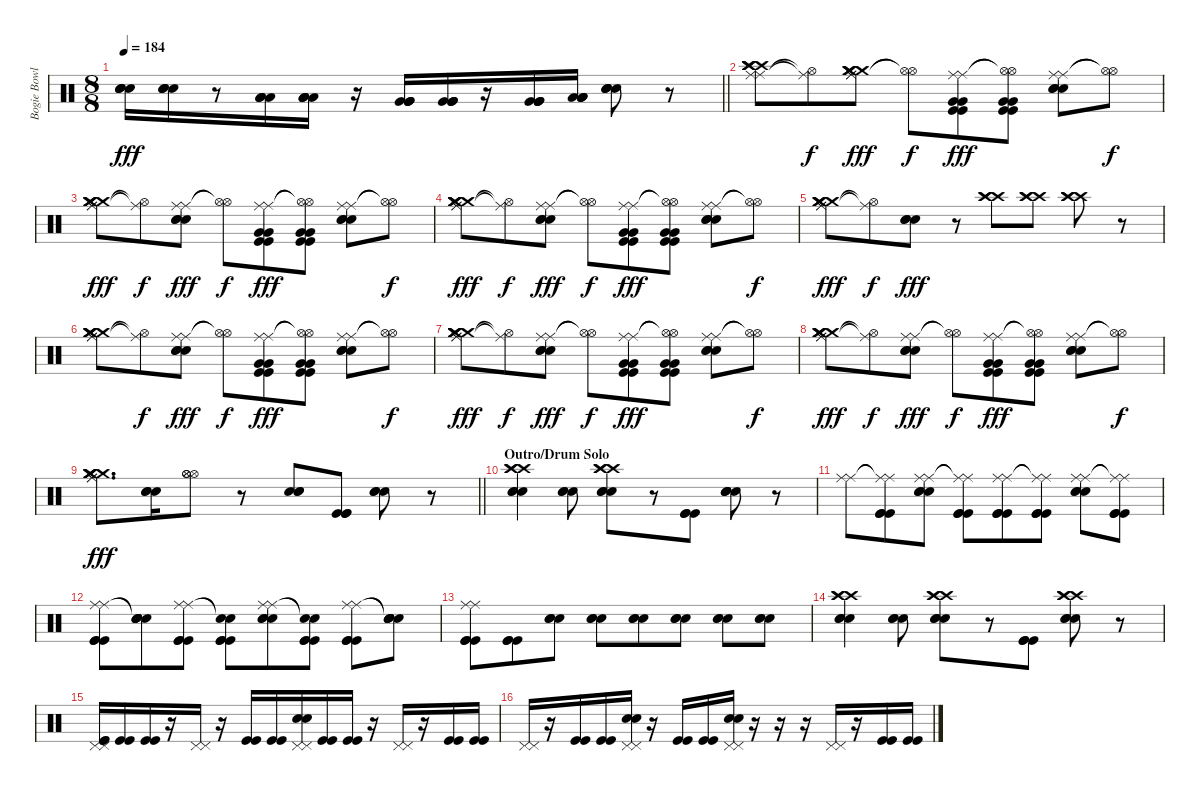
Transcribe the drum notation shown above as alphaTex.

\track ("Bogie Bowles Drums" "Bogie Bowl") {instrument percussion}
\staff {score}
\articulation defaults
\ts (8 8)
\tempo 184
\clef neutral
\barLineRight lightlight
\ks c
("Snare (hit) 2" "Snare (hit) 2" "Snare (hit) 2" "Snare (hit) 2").16{dy fff} ("Snare (hit) 2" "Snare (hit) 2" "Snare (hit) 2" "Snare (hit) 2").16 r.8 ("Low Tom (hit)" "Low Tom (hit)" "Low Tom (hit)" "Low Tom (hit)").16 ("Low Tom (hit)" "Low Tom (hit)" "Low Tom (hit)" "Low Tom (hit)").16 r.16 ("Very Low Tom (hit)" "Very Low Tom (hit)" "Very Low Tom (hit)" "Very Low Tom (hit)").16 ("Very Low Tom (hit)" "Very Low Tom (hit)" "Very Low Tom (hit)" "Very Low Tom (hit)").16 r.16 ("Very Low Tom (hit)" "Very Low Tom (hit)" "Very Low Tom (hit)" "Very Low Tom (hit)").16 ("Low Floor Tom (hit)" "Low Floor Tom (hit)" "Low Floor Tom (hit)" "Low Floor Tom (hit)").16 ("Snare (hit) 2" "Snare (hit) 2" "Snare (hit) 2" "Snare (hit) 2").8 r.8 |
("Ride (middle)" "Ride (middle)" "Crash high (hit)" "Crash high (hit)" "Crash high (hit)" "Crash high (hit)").8 ("Hi-Hat (open)"{t} "Ride (middle)"{t}).8{dy f} ("Ride (middle)" "Ride (middle)" "Crash medium (hit)" "Crash medium (hit)" "Crash medium (hit)" "Crash medium (hit)").8{dy fff} ("Hi-Hat (open)"{t} "Hi-Hat (open)"{t}).8{dy f} ("Ride (middle)" "Ride (middle)" "Kick (hit)" "Kick (hit)" "Very Low Tom (hit)" "Very Low Tom (hit)").8{dy fff} ("Hi-Hat (open)"{t} "Hi-Hat (open)"{t} "Kick (hit)" "Kick (hit)" "Very Low Tom (hit)" "Very Low Tom (hit)").8 ("Ride (middle)" "Ride (middle)" "Snare (hit) 2" "Snare (hit) 2" "Snare (hit) 2").8 ("Hi-Hat (open)"{t} "Hi-Hat (open)"{t}).8{dy f} |
("Ride (middle)" "Ride (middle)" "Crash medium (hit)" "Crash medium (hit)" "Crash medium (hit)" "Crash medium (hit)").8{dy fff} ("Hi-Hat (open)"{t} "Ride (middle)"{t}).8{dy f} ("Ride (middle)" "Ride (middle)" "Snare (hit) 2" "Snare (hit) 2" "Snare (hit) 2").8{dy fff} ("Hi-Hat (open)"{t} "Hi-Hat (open)"{t}).8{dy f} ("Ride (middle)" "Ride (middle)" "Kick (hit)" "Kick (hit)" "Very Low Tom (hit)" "Very Low Tom (hit)").8{dy fff} ("Hi-Hat (open)"{t} "Hi-Hat (open)"{t} "Kick (hit)" "Kick (hit)" "Very Low Tom (hit)" "Very Low Tom (hit)").8 ("Ride (middle)" "Ride (middle)" "Snare (hit) 2" "Snare (hit) 2" "Snare (hit) 2").8 ("Hi-Hat (open)"{t} "Hi-Hat (open)"{t}).8{dy f} |
("Ride (middle)" "Ride (middle)" "Crash medium (hit)" "Crash medium (hit)" "Crash medium (hit)" "Crash medium (hit)").8{dy fff} ("Hi-Hat (open)"{t} "Ride (middle)"{t}).8{dy f} ("Ride (middle)" "Ride (middle)" "Snare (hit) 2" "Snare (hit) 2" "Snare (hit) 2").8{dy fff} ("Hi-Hat (open)"{t} "Hi-Hat (open)"{t}).8{dy f} ("Ride (middle)" "Ride (middle)" "Kick (hit)" "Kick (hit)" "Very Low Tom (hit)" "Very Low Tom (hit)").8{dy fff} ("Hi-Hat (open)"{t} "Hi-Hat (open)"{t} "Kick (hit)" "Kick (hit)" "Very Low Tom (hit)" "Very Low Tom (hit)").8 ("Ride (middle)" "Ride (middle)" "Snare (hit) 2" "Snare (hit) 2" "Snare (hit) 2").8 ("Hi-Hat (open)"{t} "Hi-Hat (open)"{t}).8{dy f} |
("Ride (middle)" "Ride (middle)" "Crash medium (hit)" "Crash medium (hit)" "Crash medium (hit)" "Crash medium (hit)").8{dy fff} ("Hi-Hat (open)"{t} "Ride (middle)"{t}).8{dy f} ("Snare (hit) 2" "Snare (hit) 2" "Snare (hit) 2").8{dy fff} r.8 ("Crash high (hit)" "Crash high (hit)" "Crash high (hit)").8 ("Crash high (hit)" "Crash high (hit)" "Crash high (hit)").8 ("Crash high (hit)" "Crash high (hit)" "Crash high (hit)").8 r.8 |
("Ride (middle)" "Ride (middle)" "Crash medium (hit)" "Crash medium (hit)" "Crash medium (hit)" "Crash medium (hit)").8 ("Hi-Hat (open)"{t} "Ride (middle)"{t}).8{dy f} ("Ride (middle)" "Ride (middle)" "Snare (hit) 2" "Snare (hit) 2" "Snare (hit) 2").8{dy fff} ("Hi-Hat (open)"{t} "Hi-Hat (open)"{t}).8{dy f} ("Ride (middle)" "Ride (middle)" "Kick (hit)" "Kick (hit)" "Very Low Tom (hit)" "Very Low Tom (hit)").8{dy fff} ("Hi-Hat (open)"{t} "Hi-Hat (open)"{t} "Kick (hit)" "Kick (hit)" "Very Low Tom (hit)" "Very Low Tom (hit)").8 ("Ride (middle)" "Ride (middle)" "Snare (hit) 2" "Snare (hit) 2" "Snare (hit) 2").8 ("Hi-Hat (open)"{t} "Hi-Hat (open)"{t}).8{dy f} |
("Ride (middle)" "Ride (middle)" "Crash medium (hit)" "Crash medium (hit)" "Crash medium (hit)" "Crash medium (hit)").8{dy fff} ("Hi-Hat (open)"{t} "Ride (middle)"{t}).8{dy f} ("Ride (middle)" "Ride (middle)" "Snare (hit) 2" "Snare (hit) 2" "Snare (hit) 2").8{dy fff} ("Hi-Hat (open)"{t} "Hi-Hat (open)"{t}).8{dy f} ("Ride (middle)" "Ride (middle)" "Kick (hit)" "Kick (hit)" "Very Low Tom (hit)" "Very Low Tom (hit)").8{dy fff} ("Hi-Hat (open)"{t} "Hi-Hat (open)"{t} "Kick (hit)" "Kick (hit)" "Very Low Tom (hit)" "Very Low Tom (hit)").8 ("Ride (middle)" "Ride (middle)" "Snare (hit) 2" "Snare (hit) 2" "Snare (hit) 2").8 ("Hi-Hat (open)"{t} "Hi-Hat (open)"{t}).8{dy f} |
("Ride (middle)" "Ride (middle)" "Crash medium (hit)" "Crash medium (hit)" "Crash medium (hit)" "Crash medium (hit)").8{dy fff} ("Hi-Hat (open)"{t} "Ride (middle)"{t}).8{dy f} ("Ride (middle)" "Ride (middle)" "Snare (hit) 2" "Snare (hit) 2" "Snare (hit) 2").8{dy fff} ("Hi-Hat (open)"{t} "Hi-Hat (open)"{t}).8{dy f} ("Ride (middle)" "Ride (middle)" "Kick (hit)" "Kick (hit)" "Very Low Tom (hit)" "Very Low Tom (hit)").8{dy fff} ("Hi-Hat (open)"{t} "Hi-Hat (open)"{t} "Kick (hit)" "Kick (hit)" "Very Low Tom (hit)" "Very Low Tom (hit)").8 ("Ride (middle)" "Ride (middle)" "Snare (hit) 2" "Snare (hit) 2" "Snare (hit) 2").8 ("Hi-Hat (open)"{t} "Hi-Hat (open)"{t}).8{dy f} |
\barLineRight lightlight
("Ride (middle)" "Ride (middle)" "Crash medium (hit)" "Crash medium (hit)" "Crash medium (hit)" "Crash medium (hit)").8{d dy fff} ("Snare (hit) 2" "Snare (hit) 2" "Snare (hit) 2").16 ("Hi-Hat (open)" "Hi-Hat (open)" "Hi-Hat (open)").8 r.8 ("Snare (hit) 2" "Snare (hit) 2" "Snare (hit) 2").8 ("Kick (hit)" "Kick (hit)" "Kick (hit)").8 ("Snare (hit) 2" "Snare (hit) 2" "Snare (hit) 2").8 r.8 |
\section ("" "Outro/Drum Solo")
("Snare (hit) 2" "Snare (hit) 2" "Snare (hit) 2" "Crash high (hit)" "Crash high (hit)" "Crash high (hit)").4 ("Snare (hit) 2" "Snare (hit) 2" "Snare (hit) 2").8 ("Snare (hit) 2" "Snare (hit) 2" "Snare (hit) 2" "Crash high (hit)" "Crash high (hit)" "Crash high (hit)").8 r.8 ("Kick (hit)" "Kick (hit)" "Kick (hit)").8 ("Snare (hit) 2" "Snare (hit) 2" "Snare (hit) 2" "Snare (hit) 2").8 r.8 |
("Ride (middle)" "Ride (middle)").8 ("Ride (middle)"{t} "Ride (middle)"{t} "Kick (hit)" "Kick (hit)" "Kick (hit)").8 ("Ride (middle)" "Ride (middle)" "Snare (hit) 2" "Snare (hit) 2" "Snare (hit) 2").8 ("Ride (middle)"{t} "Ride (middle)"{t} "Kick (hit)" "Kick (hit)" "Kick (hit)").8 ("Ride (middle)" "Ride (middle)" "Kick (hit)" "Kick (hit)" "Kick (hit)").8 ("Ride (middle)"{t} "Ride (middle)"{t} "Kick (hit)" "Kick (hit)" "Kick (hit)").8 ("Ride (middle)" "Ride (middle)" "Snare (hit) 2" "Snare (hit) 2" "Snare (hit) 2").8 ("Ride (middle)"{t} "Ride (middle)"{t} "Kick (hit)" "Kick (hit)" "Kick (hit)").8 |
("Ride (middle)" "Ride (middle)" "Kick (hit)" "Kick (hit)" "Kick (hit)").8 ("Snare (hit)"{t} "Snare (hit)"{t} "Snare (hit) 2" "Snare (hit) 2" "Snare (hit) 2").8 ("Ride (middle)" "Ride (middle)" "Kick (hit)" "Kick (hit)" "Kick (hit)").8 ("Snare (hit)"{t} "Snare (hit)"{t} "Kick (hit)" "Kick (hit)" "Kick (hit)").8 ("Ride (middle)" "Ride (middle)" "Snare (hit) 2" "Snare (hit) 2" "Snare (hit) 2").8 ("Snare (hit)"{t} "Snare (hit)"{t} "Kick (hit)" "Kick (hit)" "Kick (hit)").8 ("Ride (middle)" "Ride (middle)" "Kick (hit)" "Kick (hit)" "Kick (hit)").8 ("Snare (hit)"{t} "Snare (hit)"{t} "Snare (hit) 2" "Snare (hit) 2" "Snare (hit) 2").8 |
("Ride (middle)" "Ride (middle)" "Kick (hit)" "Kick (hit)" "Kick (hit)").8 ("Kick (hit)" "Kick (hit)" "Kick (hit)").8 ("Snare (hit) 2" "Snare (hit) 2" "Snare (hit) 2").8 ("Snare (hit) 2" "Snare (hit) 2" "Snare (hit) 2").8 ("Snare (hit) 2" "Snare (hit) 2" "Snare (hit) 2").8 ("Snare (hit) 2" "Snare (hit) 2" "Snare (hit) 2").8 ("Snare (hit) 2" "Snare (hit) 2" "Snare (hit) 2").8 ("Snare (hit) 2" "Snare (hit) 2" "Snare (hit) 2").8 |
("Snare (hit) 2" "Snare (hit) 2" "Snare (hit) 2" "Crash high (hit)" "Crash high (hit)" "Crash high (hit)").4 ("Snare (hit) 2" "Snare (hit) 2" "Snare (hit) 2").8 ("Snare (hit) 2" "Snare (hit) 2" "Snare (hit) 2" "Crash high (hit)" "Crash high (hit)" "Crash high (hit)").8 r.8 ("Kick (hit)" "Kick (hit)" "Kick (hit)").8 ("Snare (hit) 2" "Snare (hit) 2" "Snare (hit) 2" "Crash high (hit)" "Crash high (hit)" "Crash high (hit)").8 r.8 |
("Pedal Hi-Hat (hit)" "Pedal Hi-Hat (hit)" "Kick (hit)" "Kick (hit)").16 ("Kick (hit)" "Kick (hit)").16 ("Kick (hit)" "Kick (hit)").16 r.16 ("Pedal Hi-Hat (hit)" "Pedal Hi-Hat (hit)").16 r.16 ("Kick (hit)" "Kick (hit)").16 ("Kick (hit)" "Kick (hit)").16 ("Pedal Hi-Hat (hit)" "Pedal Hi-Hat (hit)" "Snare (hit) 2" "Snare (hit) 2").16 ("Kick (hit)" "Kick (hit)").16 ("Kick (hit)" "Kick (hit)").16 r.16 ("Pedal Hi-Hat (hit)" "Pedal Hi-Hat (hit)").16 r.16 ("Kick (hit)" "Kick (hit)").16 ("Kick (hit)" "Kick (hit)").16 |
("Pedal Hi-Hat (hit)" "Pedal Hi-Hat (hit)").16 r.16 ("Kick (hit)" "Kick (hit)").16 ("Kick (hit)" "Kick (hit)").16 ("Pedal Hi-Hat (hit)" "Pedal Hi-Hat (hit)" "Snare (hit) 2" "Snare (hit) 2").16 r.16 ("Kick (hit)" "Kick (hit)").16 ("Kick (hit)" "Kick (hit)").16 ("Pedal Hi-Hat (hit)" "Pedal Hi-Hat (hit)" "Snare (hit) 2" "Snare (hit) 2").16 r.16 r.16 r.16 ("Pedal Hi-Hat (hit)" "Pedal Hi-Hat (hit)").16 r.16 ("Kick (hit)" "Kick (hit)").16 ("Kick (hit)" "Kick (hit)").16
